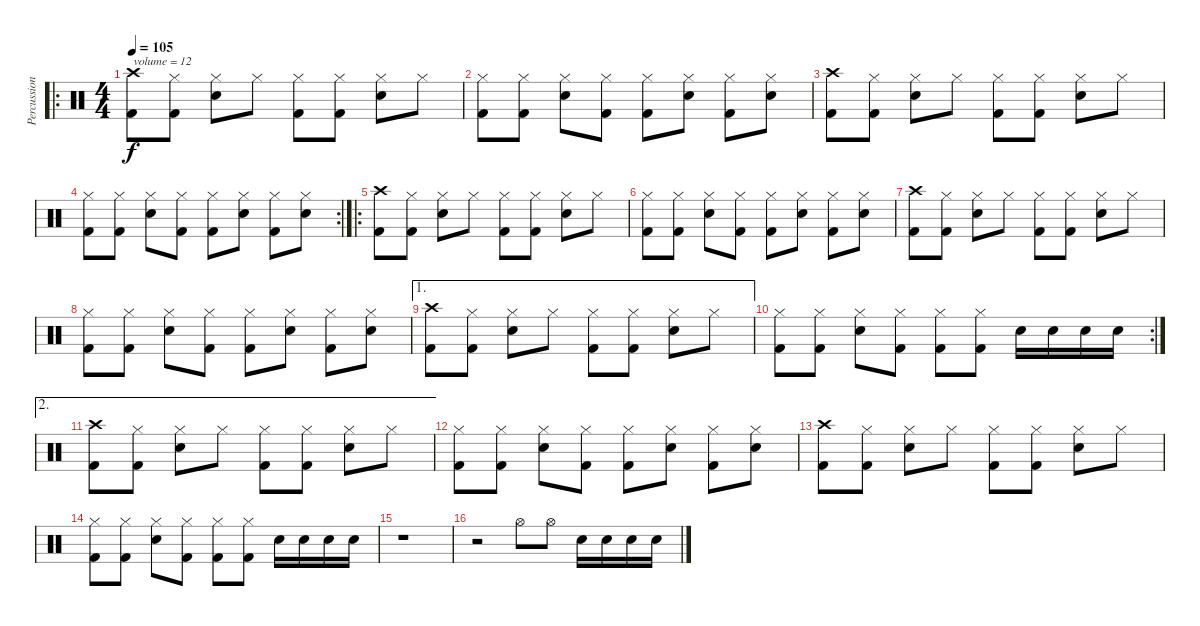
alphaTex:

\track ("Percussions" "Percussion") {instrument percussion}
\staff {score}
\articulation defaults
\ro
\ts (4 4)
\tempo 105
\clef neutral
\ks c
("Crash high (hit)" "Kick (hit) 2").8{txt "volume = 12" dy f volume 12} ("Hi-Hat (closed)" "Kick (hit) 2").8 ("Hi-Hat (closed)" "Electric Snare (hit)").8 "Hi-Hat (closed)".8 ("Hi-Hat (closed)" "Kick (hit) 2").8 ("Hi-Hat (closed)" "Kick (hit) 2").8 ("Hi-Hat (closed)" "Electric Snare (hit)").8 "Hi-Hat (closed)".8 |
("Hi-Hat (closed)" "Kick (hit) 2").8 ("Hi-Hat (closed)" "Kick (hit) 2").8 ("Hi-Hat (closed)" "Electric Snare (hit)").8 ("Hi-Hat (closed)" "Kick (hit) 2").8 ("Hi-Hat (closed)" "Kick (hit) 2").8 ("Hi-Hat (closed)" "Electric Snare (hit)").8 ("Hi-Hat (closed)" "Kick (hit) 2").8 ("Hi-Hat (closed)" "Electric Snare (hit)").8 |
("Crash high (hit)" "Kick (hit) 2").8 ("Hi-Hat (closed)" "Kick (hit) 2").8 ("Hi-Hat (closed)" "Electric Snare (hit)").8 "Hi-Hat (closed)".8 ("Hi-Hat (closed)" "Kick (hit) 2").8 ("Hi-Hat (closed)" "Kick (hit) 2").8 ("Hi-Hat (closed)" "Electric Snare (hit)").8 "Hi-Hat (closed)".8 |
\rc 2
("Hi-Hat (closed)" "Kick (hit) 2").8 ("Hi-Hat (closed)" "Kick (hit) 2").8 ("Hi-Hat (closed)" "Electric Snare (hit)").8 ("Hi-Hat (closed)" "Kick (hit) 2").8 ("Hi-Hat (closed)" "Kick (hit) 2").8 ("Hi-Hat (closed)" "Electric Snare (hit)").8 ("Hi-Hat (closed)" "Kick (hit) 2").8 ("Hi-Hat (closed)" "Electric Snare (hit)").8 |
\ro
("Crash high (hit)" "Kick (hit) 2").8 ("Hi-Hat (closed)" "Kick (hit) 2").8 ("Hi-Hat (closed)" "Electric Snare (hit)").8 "Hi-Hat (closed)".8 ("Hi-Hat (closed)" "Kick (hit) 2").8 ("Hi-Hat (closed)" "Kick (hit) 2").8 ("Hi-Hat (closed)" "Electric Snare (hit)").8 "Hi-Hat (closed)".8 |
("Hi-Hat (closed)" "Kick (hit) 2").8 ("Hi-Hat (closed)" "Kick (hit) 2").8 ("Hi-Hat (closed)" "Electric Snare (hit)").8 ("Hi-Hat (closed)" "Kick (hit) 2").8 ("Hi-Hat (closed)" "Kick (hit) 2").8 ("Hi-Hat (closed)" "Electric Snare (hit)").8 ("Hi-Hat (closed)" "Kick (hit) 2").8 ("Hi-Hat (closed)" "Electric Snare (hit)").8 |
("Crash high (hit)" "Kick (hit) 2").8 ("Hi-Hat (closed)" "Kick (hit) 2").8 ("Hi-Hat (closed)" "Electric Snare (hit)").8 "Hi-Hat (closed)".8 ("Hi-Hat (closed)" "Kick (hit) 2").8 ("Hi-Hat (closed)" "Kick (hit) 2").8 ("Hi-Hat (closed)" "Electric Snare (hit)").8 "Hi-Hat (closed)".8 |
("Hi-Hat (closed)" "Kick (hit) 2").8 ("Hi-Hat (closed)" "Kick (hit) 2").8 ("Hi-Hat (closed)" "Electric Snare (hit)").8 ("Hi-Hat (closed)" "Kick (hit) 2").8 ("Hi-Hat (closed)" "Kick (hit) 2").8 ("Hi-Hat (closed)" "Electric Snare (hit)").8 ("Hi-Hat (closed)" "Kick (hit) 2").8 ("Hi-Hat (closed)" "Electric Snare (hit)").8 |
\ae 1
("Crash high (hit)" "Kick (hit) 2").8 ("Hi-Hat (closed)" "Kick (hit) 2").8 ("Hi-Hat (closed)" "Electric Snare (hit)").8 "Hi-Hat (closed)".8 ("Hi-Hat (closed)" "Kick (hit) 2").8 ("Hi-Hat (closed)" "Kick (hit) 2").8 ("Hi-Hat (closed)" "Electric Snare (hit)").8 "Hi-Hat (closed)".8 |
\rc 2
("Hi-Hat (closed)" "Kick (hit) 2").8 ("Hi-Hat (closed)" "Kick (hit) 2").8 ("Hi-Hat (closed)" "Electric Snare (hit)").8 ("Hi-Hat (closed)" "Kick (hit) 2").8 ("Hi-Hat (closed)" "Kick (hit) 2").8 ("Hi-Hat (closed)" "Kick (hit) 2").8 "Electric Snare (hit)".16 "Electric Snare (hit)".16 "Electric Snare (hit)".16 "Electric Snare (hit)".16 |
\ae 2
("Crash high (hit)" "Kick (hit) 2").8 ("Hi-Hat (closed)" "Kick (hit) 2").8 ("Hi-Hat (closed)" "Electric Snare (hit)").8 "Hi-Hat (closed)".8 ("Hi-Hat (closed)" "Kick (hit) 2").8 ("Hi-Hat (closed)" "Kick (hit) 2").8 ("Hi-Hat (closed)" "Electric Snare (hit)").8 "Hi-Hat (closed)".8 |
("Hi-Hat (closed)" "Kick (hit) 2").8 ("Hi-Hat (closed)" "Kick (hit) 2").8 ("Hi-Hat (closed)" "Electric Snare (hit)").8 ("Hi-Hat (closed)" "Kick (hit) 2").8 ("Hi-Hat (closed)" "Kick (hit) 2").8 ("Hi-Hat (closed)" "Electric Snare (hit)").8 ("Hi-Hat (closed)" "Kick (hit) 2").8 ("Hi-Hat (closed)" "Electric Snare (hit)").8 |
("Crash high (hit)" "Kick (hit) 2").8 ("Hi-Hat (closed)" "Kick (hit) 2").8 ("Hi-Hat (closed)" "Electric Snare (hit)").8 "Hi-Hat (closed)".8 ("Hi-Hat (closed)" "Kick (hit) 2").8 ("Hi-Hat (closed)" "Kick (hit) 2").8 ("Hi-Hat (closed)" "Electric Snare (hit)").8 "Hi-Hat (closed)".8 |
("Hi-Hat (closed)" "Kick (hit) 2").8 ("Hi-Hat (closed)" "Kick (hit) 2").8 ("Hi-Hat (closed)" "Electric Snare (hit)").8 ("Hi-Hat (closed)" "Kick (hit) 2").8 ("Hi-Hat (closed)" "Kick (hit) 2").8 ("Hi-Hat (closed)" "Kick (hit) 2").8 "Electric Snare (hit)".16 "Electric Snare (hit)".16 "Electric Snare (hit)".16 "Electric Snare (hit)".16 |
r.1 |
r.2 "Hi-Hat (open)".8 "Hi-Hat (open)".8 "Electric Snare (hit)".16 "Electric Snare (hit)".16 "Electric Snare (hit)".16 "Electric Snare (hit)".16
